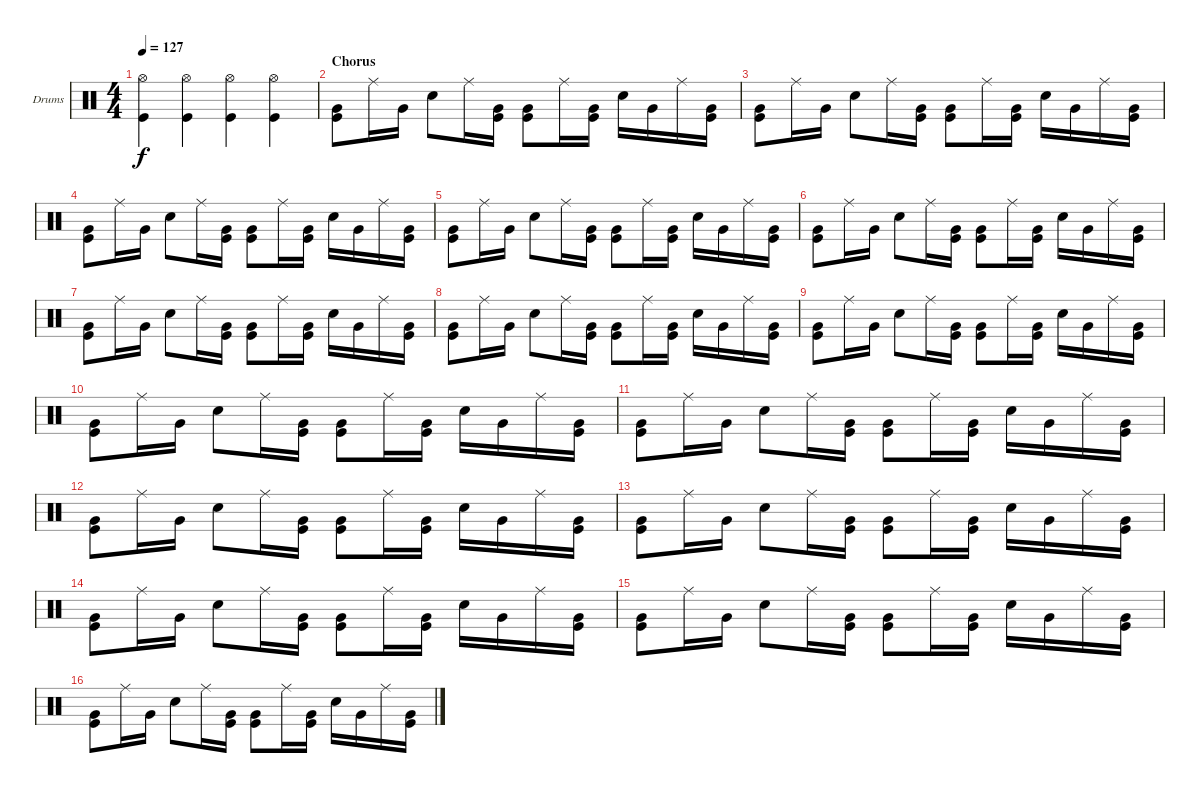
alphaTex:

\bracketExtendMode groupsimilarinstruments
\firstSystemTrackNameOrientation horizontal
\otherSystemsTrackNameOrientation horizontal
\track ("Drumkit" "Drums") {instrument percussion}
\staff {score}
\articulation defaults
\ts (4 4)
\tempo 127
\clef neutral
\ks c
("Hi-Hat (open)" "Kick (hit)").4{dy f} ("Hi-Hat (open)" "Kick (hit)").4 ("Hi-Hat (open)" "Kick (hit)").4 ("Hi-Hat (open)" "Kick (hit)").4 |
\section ("" "Chorus")
("Kick (hit)" "Very Low Tom (hit)").8 "Ride (middle)".16 "Very Low Tom (hit)".16 "Snare (hit) 2".8 "Ride (middle)".16 ("Kick (hit)" "Very Low Tom (hit)").16 ("Kick (hit)" "Very Low Tom (hit)").8 "Ride (middle)".16 ("Very Low Tom (hit)" "Kick (hit)").16 "Snare (hit) 2".16 "Very Low Tom (hit)".16 "Ride (middle)".16 ("Kick (hit)" "Very Low Tom (hit)").16 |
("Kick (hit)" "Very Low Tom (hit)").8 "Ride (middle)".16 "Very Low Tom (hit)".16 "Snare (hit) 2".8 "Ride (middle)".16 ("Kick (hit)" "Very Low Tom (hit)").16 ("Kick (hit)" "Very Low Tom (hit)").8 "Ride (middle)".16 ("Very Low Tom (hit)" "Kick (hit)").16 "Snare (hit) 2".16 "Very Low Tom (hit)".16 "Ride (middle)".16 ("Kick (hit)" "Very Low Tom (hit)").16 |
("Kick (hit)" "Very Low Tom (hit)").8 "Ride (middle)".16 "Very Low Tom (hit)".16 "Snare (hit) 2".8 "Ride (middle)".16 ("Kick (hit)" "Very Low Tom (hit)").16 ("Kick (hit)" "Very Low Tom (hit)").8 "Ride (middle)".16 ("Very Low Tom (hit)" "Kick (hit)").16 "Snare (hit) 2".16 "Very Low Tom (hit)".16 "Ride (middle)".16 ("Kick (hit)" "Very Low Tom (hit)").16 |
("Kick (hit)" "Very Low Tom (hit)").8 "Ride (middle)".16 "Very Low Tom (hit)".16 "Snare (hit) 2".8 "Ride (middle)".16 ("Kick (hit)" "Very Low Tom (hit)").16 ("Kick (hit)" "Very Low Tom (hit)").8 "Ride (middle)".16 ("Very Low Tom (hit)" "Kick (hit)").16 "Snare (hit) 2".16 "Very Low Tom (hit)".16 "Ride (middle)".16 ("Kick (hit)" "Very Low Tom (hit)").16 |
("Kick (hit)" "Very Low Tom (hit)").8 "Ride (middle)".16 "Very Low Tom (hit)".16 "Snare (hit) 2".8 "Ride (middle)".16 ("Kick (hit)" "Very Low Tom (hit)").16 ("Kick (hit)" "Very Low Tom (hit)").8 "Ride (middle)".16 ("Very Low Tom (hit)" "Kick (hit)").16 "Snare (hit) 2".16 "Very Low Tom (hit)".16 "Ride (middle)".16 ("Kick (hit)" "Very Low Tom (hit)").16 |
("Kick (hit)" "Very Low Tom (hit)").8 "Ride (middle)".16 "Very Low Tom (hit)".16 "Snare (hit) 2".8 "Ride (middle)".16 ("Kick (hit)" "Very Low Tom (hit)").16 ("Kick (hit)" "Very Low Tom (hit)").8 "Ride (middle)".16 ("Very Low Tom (hit)" "Kick (hit)").16 "Snare (hit) 2".16 "Very Low Tom (hit)".16 "Ride (middle)".16 ("Kick (hit)" "Very Low Tom (hit)").16 |
("Kick (hit)" "Very Low Tom (hit)").8 "Ride (middle)".16 "Very Low Tom (hit)".16 "Snare (hit) 2".8 "Ride (middle)".16 ("Kick (hit)" "Very Low Tom (hit)").16 ("Kick (hit)" "Very Low Tom (hit)").8 "Ride (middle)".16 ("Very Low Tom (hit)" "Kick (hit)").16 "Snare (hit) 2".16 "Very Low Tom (hit)".16 "Ride (middle)".16 ("Kick (hit)" "Very Low Tom (hit)").16 |
("Kick (hit)" "Very Low Tom (hit)").8 "Ride (middle)".16 "Very Low Tom (hit)".16 "Snare (hit) 2".8 "Ride (middle)".16 ("Kick (hit)" "Very Low Tom (hit)").16 ("Kick (hit)" "Very Low Tom (hit)").8 "Ride (middle)".16 ("Very Low Tom (hit)" "Kick (hit)").16 "Snare (hit) 2".16 "Very Low Tom (hit)".16 "Ride (middle)".16 ("Kick (hit)" "Very Low Tom (hit)").16 |
("Kick (hit)" "Very Low Tom (hit)").8 "Ride (middle)".16 "Very Low Tom (hit)".16 "Snare (hit) 2".8 "Ride (middle)".16 ("Kick (hit)" "Very Low Tom (hit)").16 ("Kick (hit)" "Very Low Tom (hit)").8 "Ride (middle)".16 ("Very Low Tom (hit)" "Kick (hit)").16 "Snare (hit) 2".16 "Very Low Tom (hit)".16 "Ride (middle)".16 ("Kick (hit)" "Very Low Tom (hit)").16 |
("Kick (hit)" "Very Low Tom (hit)").8 "Ride (middle)".16 "Very Low Tom (hit)".16 "Snare (hit) 2".8 "Ride (middle)".16 ("Kick (hit)" "Very Low Tom (hit)").16 ("Kick (hit)" "Very Low Tom (hit)").8 "Ride (middle)".16 ("Very Low Tom (hit)" "Kick (hit)").16 "Snare (hit) 2".16 "Very Low Tom (hit)".16 "Ride (middle)".16 ("Kick (hit)" "Very Low Tom (hit)").16 |
("Kick (hit)" "Very Low Tom (hit)").8 "Ride (middle)".16 "Very Low Tom (hit)".16 "Snare (hit) 2".8 "Ride (middle)".16 ("Kick (hit)" "Very Low Tom (hit)").16 ("Kick (hit)" "Very Low Tom (hit)").8 "Ride (middle)".16 ("Very Low Tom (hit)" "Kick (hit)").16 "Snare (hit) 2".16 "Very Low Tom (hit)".16 "Ride (middle)".16 ("Kick (hit)" "Very Low Tom (hit)").16 |
("Kick (hit)" "Very Low Tom (hit)").8 "Ride (middle)".16 "Very Low Tom (hit)".16 "Snare (hit) 2".8 "Ride (middle)".16 ("Kick (hit)" "Very Low Tom (hit)").16 ("Kick (hit)" "Very Low Tom (hit)").8 "Ride (middle)".16 ("Very Low Tom (hit)" "Kick (hit)").16 "Snare (hit) 2".16 "Very Low Tom (hit)".16 "Ride (middle)".16 ("Kick (hit)" "Very Low Tom (hit)").16 |
("Kick (hit)" "Very Low Tom (hit)").8 "Ride (middle)".16 "Very Low Tom (hit)".16 "Snare (hit) 2".8 "Ride (middle)".16 ("Kick (hit)" "Very Low Tom (hit)").16 ("Kick (hit)" "Very Low Tom (hit)").8 "Ride (middle)".16 ("Very Low Tom (hit)" "Kick (hit)").16 "Snare (hit) 2".16 "Very Low Tom (hit)".16 "Ride (middle)".16 ("Kick (hit)" "Very Low Tom (hit)").16 |
("Kick (hit)" "Very Low Tom (hit)").8 "Ride (middle)".16 "Very Low Tom (hit)".16 "Snare (hit) 2".8 "Ride (middle)".16 ("Kick (hit)" "Very Low Tom (hit)").16 ("Kick (hit)" "Very Low Tom (hit)").8 "Ride (middle)".16 ("Very Low Tom (hit)" "Kick (hit)").16 "Snare (hit) 2".16 "Very Low Tom (hit)".16 "Ride (middle)".16 ("Kick (hit)" "Very Low Tom (hit)").16 |
("Kick (hit)" "Very Low Tom (hit)").8 "Ride (middle)".16 "Very Low Tom (hit)".16 "Snare (hit) 2".8 "Ride (middle)".16 ("Kick (hit)" "Very Low Tom (hit)").16 ("Kick (hit)" "Very Low Tom (hit)").8 "Ride (middle)".16 ("Very Low Tom (hit)" "Kick (hit)").16 "Snare (hit) 2".16 "Very Low Tom (hit)".16 "Ride (middle)".16 ("Kick (hit)" "Very Low Tom (hit)").16
